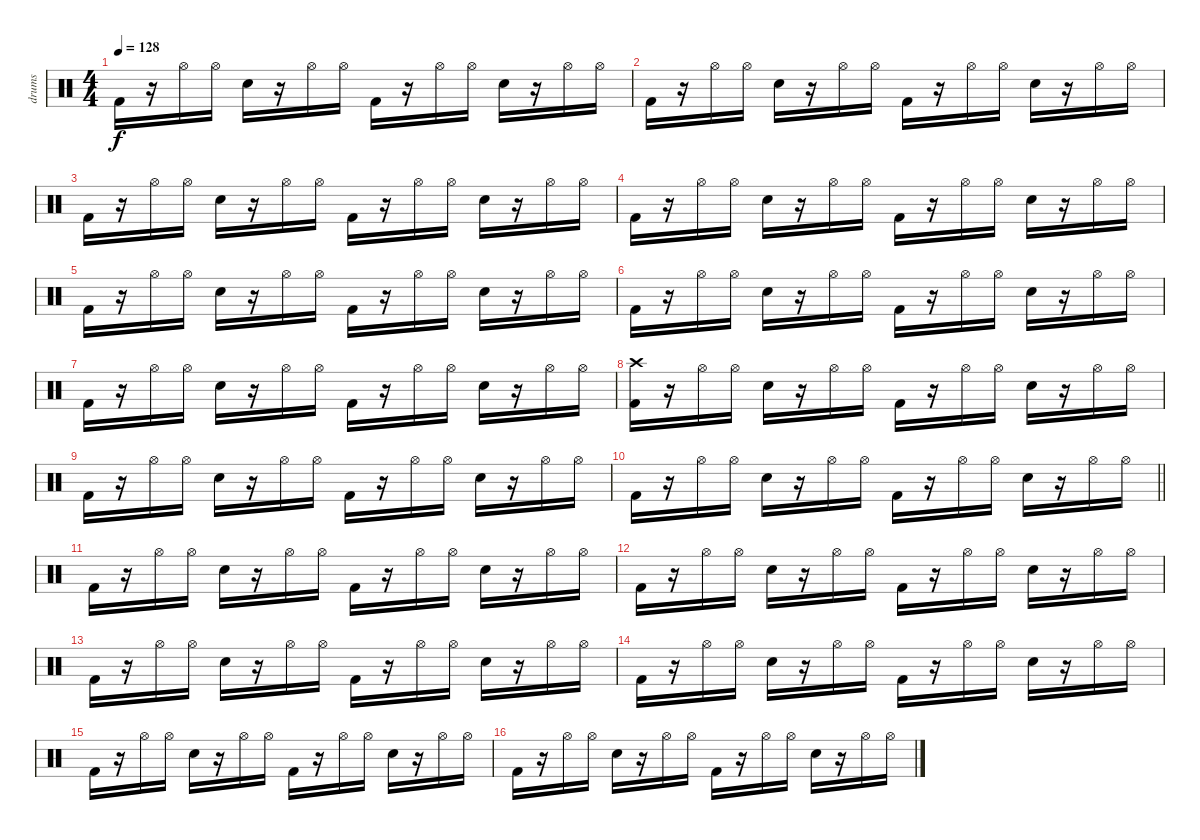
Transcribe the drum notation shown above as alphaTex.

\track ("drums" "drums") {instrument percussion}
\staff {score}
\articulation defaults
\ts (4 4)
\tempo 128
\clef neutral
\ks c "Kick (hit) 2".16{dy f}
r.16 "Hi-Hat (open)".16 "Hi-Hat (open)".16 "Electric Snare (hit)".16 r.16 "Hi-Hat (open)".16 "Hi-Hat (open)".16 "Kick (hit) 2".16 r.16 "Hi-Hat (open)".16 "Hi-Hat (open)".16 "Electric Snare (hit)".16 r.16 "Hi-Hat (open)".16 "Hi-Hat (open)".16 |
"Kick (hit) 2".16 r.16 "Hi-Hat (open)".16 "Hi-Hat (open)".16 "Electric Snare (hit)".16 r.16 "Hi-Hat (open)".16 "Hi-Hat (open)".16 "Kick (hit) 2".16 r.16 "Hi-Hat (open)".16 "Hi-Hat (open)".16 "Electric Snare (hit)".16 r.16 "Hi-Hat (open)".16 "Hi-Hat (open)".16 |
"Kick (hit) 2".16 r.16 "Hi-Hat (open)".16 "Hi-Hat (open)".16 "Electric Snare (hit)".16 r.16 "Hi-Hat (open)".16 "Hi-Hat (open)".16 "Kick (hit) 2".16 r.16 "Hi-Hat (open)".16 "Hi-Hat (open)".16 "Electric Snare (hit)".16 r.16 "Hi-Hat (open)".16 "Hi-Hat (open)".16 |
"Kick (hit) 2".16 r.16 "Hi-Hat (open)".16 "Hi-Hat (open)".16 "Electric Snare (hit)".16 r.16 "Hi-Hat (open)".16 "Hi-Hat (open)".16 "Kick (hit) 2".16 r.16 "Hi-Hat (open)".16 "Hi-Hat (open)".16 "Electric Snare (hit)".16 r.16 "Hi-Hat (open)".16 "Hi-Hat (open)".16 |
"Kick (hit) 2".16 r.16 "Hi-Hat (open)".16 "Hi-Hat (open)".16 "Electric Snare (hit)".16 r.16 "Hi-Hat (open)".16 "Hi-Hat (open)".16 "Kick (hit) 2".16 r.16 "Hi-Hat (open)".16 "Hi-Hat (open)".16 "Electric Snare (hit)".16 r.16 "Hi-Hat (open)".16 "Hi-Hat (open)".16 |
"Kick (hit) 2".16 r.16 "Hi-Hat (open)".16 "Hi-Hat (open)".16 "Electric Snare (hit)".16 r.16 "Hi-Hat (open)".16 "Hi-Hat (open)".16 "Kick (hit) 2".16 r.16 "Hi-Hat (open)".16 "Hi-Hat (open)".16 "Electric Snare (hit)".16 r.16 "Hi-Hat (open)".16 "Hi-Hat (open)".16 |
"Kick (hit) 2".16 r.16 "Hi-Hat (open)".16 "Hi-Hat (open)".16 "Electric Snare (hit)".16 r.16 "Hi-Hat (open)".16 "Hi-Hat (open)".16 "Kick (hit) 2".16 r.16 "Hi-Hat (open)".16 "Hi-Hat (open)".16 "Electric Snare (hit)".16 r.16 "Hi-Hat (open)".16 "Hi-Hat (open)".16 |
("Kick (hit) 2" "Crash high (hit)").16 r.16 "Hi-Hat (open)".16 "Hi-Hat (open)".16 "Electric Snare (hit)".16 r.16 "Hi-Hat (open)".16 "Hi-Hat (open)".16 "Kick (hit) 2".16 r.16 "Hi-Hat (open)".16 "Hi-Hat (open)".16 "Electric Snare (hit)".16 r.16 "Hi-Hat (open)".16 "Hi-Hat (open)".16 |
"Kick (hit) 2".16 r.16 "Hi-Hat (open)".16 "Hi-Hat (open)".16 "Electric Snare (hit)".16 r.16 "Hi-Hat (open)".16 "Hi-Hat (open)".16 "Kick (hit) 2".16 r.16 "Hi-Hat (open)".16 "Hi-Hat (open)".16 "Electric Snare (hit)".16 r.16 "Hi-Hat (open)".16 "Hi-Hat (open)".16 |
\barLineRight lightlight "Kick (hit) 2".16
r.16 "Hi-Hat (open)".16 "Hi-Hat (open)".16 "Electric Snare (hit)".16 r.16 "Hi-Hat (open)".16 "Hi-Hat (open)".16 "Kick (hit) 2".16 r.16 "Hi-Hat (open)".16 "Hi-Hat (open)".16 "Electric Snare (hit)".16 r.16 "Hi-Hat (open)".16 "Hi-Hat (open)".16 |
"Kick (hit) 2".16 r.16 "Hi-Hat (open)".16 "Hi-Hat (open)".16 "Electric Snare (hit)".16 r.16 "Hi-Hat (open)".16 "Hi-Hat (open)".16 "Kick (hit) 2".16 r.16 "Hi-Hat (open)".16 "Hi-Hat (open)".16 "Electric Snare (hit)".16 r.16 "Hi-Hat (open)".16 "Hi-Hat (open)".16 |
"Kick (hit) 2".16 r.16 "Hi-Hat (open)".16 "Hi-Hat (open)".16 "Electric Snare (hit)".16 r.16 "Hi-Hat (open)".16 "Hi-Hat (open)".16 "Kick (hit) 2".16 r.16 "Hi-Hat (open)".16 "Hi-Hat (open)".16 "Electric Snare (hit)".16 r.16 "Hi-Hat (open)".16 "Hi-Hat (open)".16 |
"Kick (hit) 2".16 r.16 "Hi-Hat (open)".16 "Hi-Hat (open)".16 "Electric Snare (hit)".16 r.16 "Hi-Hat (open)".16 "Hi-Hat (open)".16 "Kick (hit) 2".16 r.16 "Hi-Hat (open)".16 "Hi-Hat (open)".16 "Electric Snare (hit)".16 r.16 "Hi-Hat (open)".16 "Hi-Hat (open)".16 |
"Kick (hit) 2".16 r.16 "Hi-Hat (open)".16 "Hi-Hat (open)".16 "Electric Snare (hit)".16 r.16 "Hi-Hat (open)".16 "Hi-Hat (open)".16 "Kick (hit) 2".16 r.16 "Hi-Hat (open)".16 "Hi-Hat (open)".16 "Electric Snare (hit)".16 r.16 "Hi-Hat (open)".16 "Hi-Hat (open)".16 |
"Kick (hit) 2".16 r.16 "Hi-Hat (open)".16 "Hi-Hat (open)".16 "Electric Snare (hit)".16 r.16 "Hi-Hat (open)".16 "Hi-Hat (open)".16 "Kick (hit) 2".16 r.16 "Hi-Hat (open)".16 "Hi-Hat (open)".16 "Electric Snare (hit)".16 r.16 "Hi-Hat (open)".16 "Hi-Hat (open)".16 |
"Kick (hit) 2".16 r.16 "Hi-Hat (open)".16 "Hi-Hat (open)".16 "Electric Snare (hit)".16 r.16 "Hi-Hat (open)".16 "Hi-Hat (open)".16 "Kick (hit) 2".16 r.16 "Hi-Hat (open)".16 "Hi-Hat (open)".16 "Electric Snare (hit)".16 r.16 "Hi-Hat (open)".16 "Hi-Hat (open)".16
